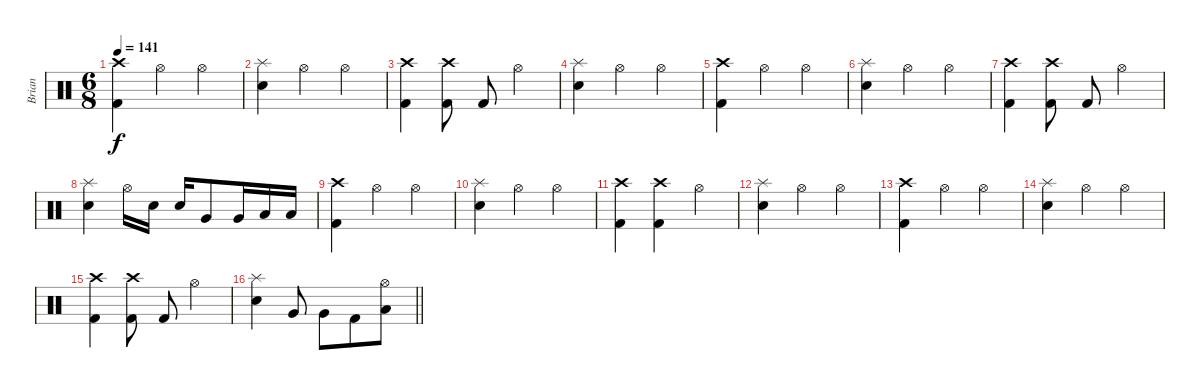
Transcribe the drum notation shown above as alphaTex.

\track ("Brian" "Brian") {instrument percussion}
\staff {score}
\articulation defaults
\ts (6 8)
\tempo 141
\clef neutral
\ks c
("Crash high (hit)" "Kick (hit) 2").4{dy f} "Hi-Hat (open)".4 "Hi-Hat (open)".4 |
("Splash (hit)" "Electric Snare (hit)").4 "Hi-Hat (open)".4 "Hi-Hat (open)".4 |
("Crash high (hit)" "Kick (hit) 2").4 ("Crash high (hit)" "Kick (hit) 2").8 "Kick (hit) 2".8 "Hi-Hat (open)".4 |
("Splash (hit)" "Electric Snare (hit)").4 "Hi-Hat (open)".4 "Hi-Hat (open)".4 |
("Crash high (hit)" "Kick (hit) 2").4 "Hi-Hat (open)".4 "Hi-Hat (open)".4 |
("Splash (hit)" "Electric Snare (hit)").4 "Hi-Hat (open)".4 "Hi-Hat (open)".4 |
("Crash high (hit)" "Kick (hit) 2").4 ("Crash high (hit)" "Kick (hit) 2").8 "Kick (hit) 2".8 "Hi-Hat (open)".4 |
("Splash (hit)" "Electric Snare (hit)").4 "Hi-Hat (open)".16 "Electric Snare (hit)".16 "Electric Snare (hit)".16 "Very Low Tom (hit)".8 "Very Low Tom (hit)".16 "Low Floor Tom (hit)".16 "Low Floor Tom (hit)".16 |
("Crash high (hit)" "Kick (hit) 2").4 "Hi-Hat (open)".4 "Hi-Hat (open)".4 |
("Splash (hit)" "Electric Snare (hit)").4 "Hi-Hat (open)".4 "Hi-Hat (open)".4 |
("Crash high (hit)" "Kick (hit) 2").4 ("Crash high (hit)" "Kick (hit) 2").4 "Hi-Hat (open)".4 |
("Splash (hit)" "Electric Snare (hit)").4 "Hi-Hat (open)".4 "Hi-Hat (open)".4 |
("Crash high (hit)" "Kick (hit) 2").4 "Hi-Hat (open)".4 "Hi-Hat (open)".4 |
("Splash (hit)" "Electric Snare (hit)").4 "Hi-Hat (open)".4 "Hi-Hat (open)".4 |
("Crash high (hit)" "Kick (hit) 2").4 ("Crash high (hit)" "Kick (hit) 2").8 "Kick (hit) 2".8 "Hi-Hat (open)".4 |
\barLineRight lightlight
("Splash (hit)" "Electric Snare (hit)").4 "Very Low Tom (hit)".8 "Very Low Tom (hit)".8 "Kick (hit) 2".8 ("Hi-Hat (open)" "Low Floor Tom (hit)").8
